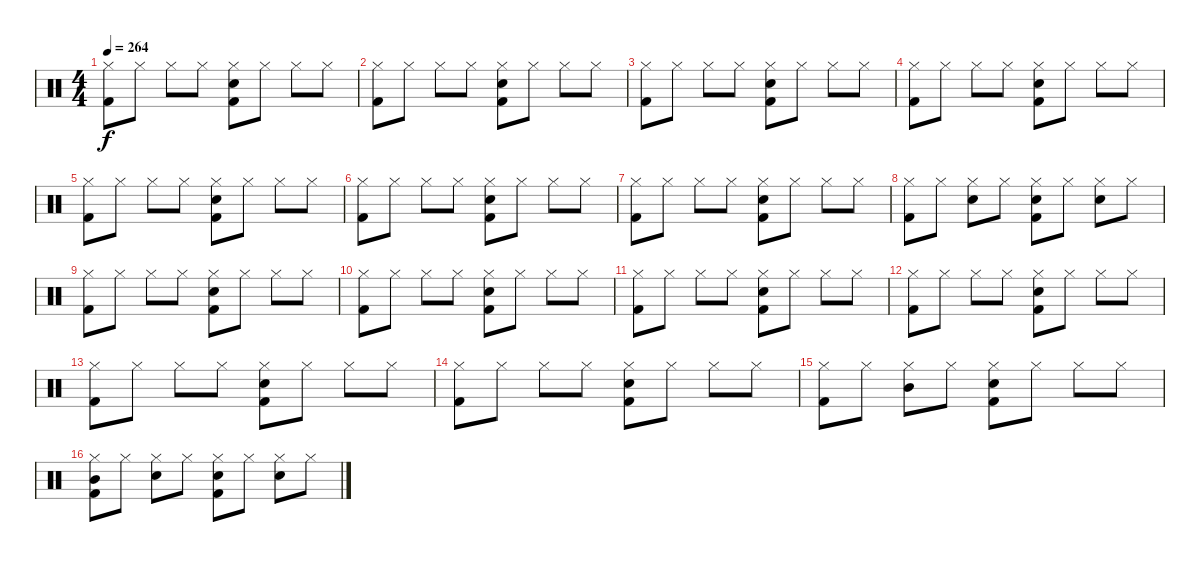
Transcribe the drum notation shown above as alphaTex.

\track "" {instrument percussion}
\staff {score}
\articulation defaults
\ts (4 4)
\tempo 264
\clef neutral
\ks c
("Kick (hit) 2" "Hi-Hat (closed)").8{dy f} "Hi-Hat (closed)".8 "Hi-Hat (closed)".8 "Hi-Hat (closed)".8 ("Snare (hit) 2" "Kick (hit) 2" "Hi-Hat (closed)").8 "Hi-Hat (closed)".8 "Hi-Hat (closed)".8 "Hi-Hat (closed)".8 |
("Kick (hit) 2" "Hi-Hat (closed)").8 "Hi-Hat (closed)".8 "Hi-Hat (closed)".8 "Hi-Hat (closed)".8 ("Snare (hit) 2" "Kick (hit) 2" "Hi-Hat (closed)").8 "Hi-Hat (closed)".8 "Hi-Hat (closed)".8 "Hi-Hat (closed)".8 |
("Kick (hit) 2" "Hi-Hat (closed)").8 "Hi-Hat (closed)".8 "Hi-Hat (closed)".8 "Hi-Hat (closed)".8 ("Snare (hit) 2" "Kick (hit) 2" "Hi-Hat (closed)").8 "Hi-Hat (closed)".8 "Hi-Hat (closed)".8 "Hi-Hat (closed)".8 |
("Kick (hit) 2" "Hi-Hat (closed)").8 "Hi-Hat (closed)".8 "Hi-Hat (closed)".8 "Hi-Hat (closed)".8 ("Snare (hit) 2" "Kick (hit) 2" "Hi-Hat (closed)").8 "Hi-Hat (closed)".8 "Hi-Hat (closed)".8 "Hi-Hat (closed)".8 |
("Kick (hit) 2" "Hi-Hat (closed)").8 "Hi-Hat (closed)".8 "Hi-Hat (closed)".8 "Hi-Hat (closed)".8 ("Snare (hit) 2" "Kick (hit) 2" "Hi-Hat (closed)").8 "Hi-Hat (closed)".8 "Hi-Hat (closed)".8 "Hi-Hat (closed)".8 |
("Kick (hit) 2" "Hi-Hat (closed)").8 "Hi-Hat (closed)".8 "Hi-Hat (closed)".8 "Hi-Hat (closed)".8 ("Snare (hit) 2" "Kick (hit) 2" "Hi-Hat (closed)").8 "Hi-Hat (closed)".8 "Hi-Hat (closed)".8 "Hi-Hat (closed)".8 |
("Kick (hit) 2" "Hi-Hat (closed)").8 "Hi-Hat (closed)".8 "Hi-Hat (closed)".8 "Hi-Hat (closed)".8 ("Snare (hit) 2" "Kick (hit) 2" "Hi-Hat (closed)").8 "Hi-Hat (closed)".8 "Hi-Hat (closed)".8 "Hi-Hat (closed)".8 |
("Kick (hit) 2" "Hi-Hat (closed)").8 "Hi-Hat (closed)".8 ("Snare (hit) 2" "Hi-Hat (closed)").8 "Hi-Hat (closed)".8 ("Snare (hit) 2" "Kick (hit) 2" "Hi-Hat (closed)").8 "Hi-Hat (closed)".8 ("Snare (hit) 2" "Hi-Hat (closed)").8 "Hi-Hat (closed)".8 |
("Kick (hit) 2" "Hi-Hat (closed)").8 "Hi-Hat (closed)".8 "Hi-Hat (closed)".8 "Hi-Hat (closed)".8 ("Snare (hit) 2" "Kick (hit) 2" "Hi-Hat (closed)").8 "Hi-Hat (closed)".8 "Hi-Hat (closed)".8 "Hi-Hat (closed)".8 |
("Kick (hit) 2" "Hi-Hat (closed)").8 "Hi-Hat (closed)".8 "Hi-Hat (closed)".8 "Hi-Hat (closed)".8 ("Snare (hit) 2" "Kick (hit) 2" "Hi-Hat (closed)").8 "Hi-Hat (closed)".8 "Hi-Hat (closed)".8 "Hi-Hat (closed)".8 |
("Kick (hit) 2" "Hi-Hat (closed)").8 "Hi-Hat (closed)".8 "Hi-Hat (closed)".8 "Hi-Hat (closed)".8 ("Snare (hit) 2" "Kick (hit) 2" "Hi-Hat (closed)").8 "Hi-Hat (closed)".8 "Hi-Hat (closed)".8 "Hi-Hat (closed)".8 |
("Kick (hit) 2" "Hi-Hat (closed)").8 "Hi-Hat (closed)".8 "Hi-Hat (closed)".8 "Hi-Hat (closed)".8 ("Snare (hit) 2" "Kick (hit) 2" "Hi-Hat (closed)").8 "Hi-Hat (closed)".8 "Hi-Hat (closed)".8 "Hi-Hat (closed)".8 |
("Kick (hit) 2" "Hi-Hat (closed)").8 "Hi-Hat (closed)".8 "Hi-Hat (closed)".8 "Hi-Hat (closed)".8 ("Snare (hit) 2" "Kick (hit) 2" "Hi-Hat (closed)").8 "Hi-Hat (closed)".8 "Hi-Hat (closed)".8 "Hi-Hat (closed)".8 |
("Kick (hit) 2" "Hi-Hat (closed)").8 "Hi-Hat (closed)".8 "Hi-Hat (closed)".8 "Hi-Hat (closed)".8 ("Snare (hit) 2" "Kick (hit) 2" "Hi-Hat (closed)").8 "Hi-Hat (closed)".8 "Hi-Hat (closed)".8 "Hi-Hat (closed)".8 |
("Kick (hit) 2" "Hi-Hat (closed)").8 "Hi-Hat (closed)".8 ("Mid Tom (hit)" "Hi-Hat (closed)").8 "Hi-Hat (closed)".8 ("Snare (hit) 2" "Kick (hit) 2" "Hi-Hat (closed)").8 "Hi-Hat (closed)".8 "Hi-Hat (closed)".8 "Hi-Hat (closed)".8 |
("Mid Tom (hit)" "Kick (hit) 2" "Hi-Hat (closed)").8 "Hi-Hat (closed)".8 ("Snare (hit) 2" "Hi-Hat (closed)").8 "Hi-Hat (closed)".8 ("Snare (hit) 2" "Kick (hit) 2" "Hi-Hat (closed)").8 "Hi-Hat (closed)".8 ("Snare (hit) 2" "Hi-Hat (closed)").8 "Hi-Hat (closed)".8
